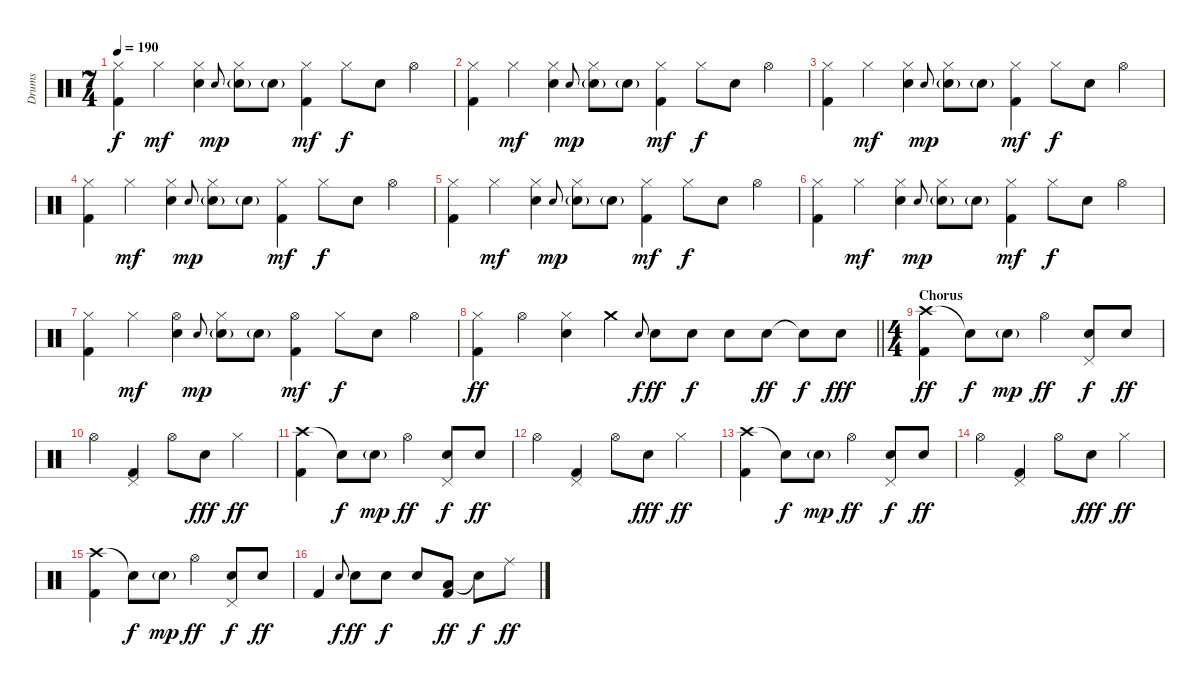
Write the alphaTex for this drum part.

\track ("Drums" "Drums") {instrument percussion}
\staff {score}
\articulation defaults
\ts (7 4)
\tempo 190
\clef neutral
\ks c
("Hi-Hat (closed)" "Kick (hit) 2").4{dy f} "Hi-Hat (closed)".4{dy mf} ("Hi-Hat (closed)" "Electric Snare (hit)").4 "Electric Snare (hit)".8{gr onbeat dy mp} ("Hi-Hat (closed)" "Electric Snare (hit)"{g}).8 "Electric Snare (hit)"{g}.8 ("Hi-Hat (closed)" "Kick (hit) 2").4{dy mf} "Hi-Hat (closed)".8{dy f} "Electric Snare (hit)".8 "Hi-Hat (open)".4 |
("Hi-Hat (closed)" "Kick (hit) 2").4 "Hi-Hat (closed)".4{dy mf} ("Hi-Hat (closed)" "Electric Snare (hit)").4 "Electric Snare (hit)".8{gr onbeat dy mp} ("Hi-Hat (closed)" "Electric Snare (hit)"{g}).8 "Electric Snare (hit)"{g}.8 ("Hi-Hat (closed)" "Kick (hit) 2").4{dy mf} "Hi-Hat (closed)".8{dy f} "Electric Snare (hit)".8 "Hi-Hat (open)".4 |
("Hi-Hat (closed)" "Kick (hit) 2").4 "Hi-Hat (closed)".4{dy mf} ("Hi-Hat (closed)" "Electric Snare (hit)").4 "Electric Snare (hit)".8{gr onbeat dy mp} ("Hi-Hat (closed)" "Electric Snare (hit)"{g}).8 "Electric Snare (hit)"{g}.8 ("Hi-Hat (closed)" "Kick (hit) 2").4{dy mf} "Hi-Hat (closed)".8{dy f} "Electric Snare (hit)".8 "Hi-Hat (open)".4 |
("Hi-Hat (closed)" "Kick (hit) 2").4 "Hi-Hat (closed)".4{dy mf} ("Hi-Hat (closed)" "Electric Snare (hit)").4 "Electric Snare (hit)".8{gr onbeat dy mp} ("Hi-Hat (closed)" "Electric Snare (hit)"{g}).8 "Electric Snare (hit)"{g}.8 ("Hi-Hat (closed)" "Kick (hit) 2").4{dy mf} "Hi-Hat (closed)".8{dy f} "Electric Snare (hit)".8 "Hi-Hat (open)".4 |
("Hi-Hat (closed)" "Kick (hit) 2").4 "Hi-Hat (closed)".4{dy mf} ("Hi-Hat (closed)" "Electric Snare (hit)").4 "Electric Snare (hit)".8{gr onbeat dy mp} ("Hi-Hat (closed)" "Electric Snare (hit)"{g}).8 "Electric Snare (hit)"{g}.8 ("Hi-Hat (closed)" "Kick (hit) 2").4{dy mf} "Hi-Hat (closed)".8{dy f} "Electric Snare (hit)".8 "Hi-Hat (open)".4 |
("Hi-Hat (closed)" "Kick (hit) 2").4 "Hi-Hat (closed)".4{dy mf} ("Hi-Hat (closed)" "Electric Snare (hit)").4 "Electric Snare (hit)".8{gr onbeat dy mp} ("Hi-Hat (closed)" "Electric Snare (hit)"{g}).8 "Electric Snare (hit)"{g}.8 ("Hi-Hat (closed)" "Kick (hit) 2").4{dy mf} "Hi-Hat (closed)".8{dy f} "Electric Snare (hit)".8 "Hi-Hat (open)".4 |
("Hi-Hat (closed)" "Kick (hit) 2").4 "Hi-Hat (closed)".4{dy mf} ("Hi-Hat (open)" "Electric Snare (hit)").4 "Electric Snare (hit)".8{gr onbeat dy mp} ("Hi-Hat (closed)" "Electric Snare (hit)"{g}).8 "Electric Snare (hit)"{g}.8 ("Hi-Hat (open)" "Kick (hit) 2").4{dy mf} "Hi-Hat (closed)".8{dy f} "Electric Snare (hit)".8 "Hi-Hat (open)".4 |
\barLineRight lightlight
("Hi-Hat (closed)" "Kick (hit) 2").4{dy ff} "Hi-Hat (open)".4 ("Hi-Hat (closed)" "Electric Snare (hit)").4 "Crash medium (hit)".4 "Electric Snare (hit)".8{gr onbeat dy f} "Electric Snare (hit)".8{dy ff} "Electric Snare (hit)".8{dy f} "Electric Snare (hit)".8 "Electric Snare (hit)".8{dy ff} "Snare (hit)"{t}.8{dy f} "Electric Snare (hit)".8{dy fff} |
\ts (4 4)
\section ("" "Chorus")
("Crash high (hit)" "Kick (hit) 2").4{dy ff} "Snare (hit)"{t}.8{dy f} "Electric Snare (hit)"{g}.8{dy mp} "Hi-Hat (open)".4{dy ff} ("Pedal Hi-Hat (hit)" "Electric Snare (hit)").8{dy f} "Electric Snare (hit)".8{dy ff} |
"Hi-Hat (open)".4 ("Pedal Hi-Hat (hit)" "Kick (hit) 2").4 "Hi-Hat (open)".8 "Electric Snare (hit)".8{dy fff} "Hi-Hat (closed)".4{dy ff} |
("Crash high (hit)" "Kick (hit) 2").4 "Snare (hit)"{t}.8{dy f} "Electric Snare (hit)"{g}.8{dy mp} "Hi-Hat (open)".4{dy ff} ("Pedal Hi-Hat (hit)" "Electric Snare (hit)").8{dy f} "Electric Snare (hit)".8{dy ff} |
"Hi-Hat (open)".4 ("Pedal Hi-Hat (hit)" "Kick (hit) 2").4 "Hi-Hat (open)".8 "Electric Snare (hit)".8{dy fff} "Hi-Hat (closed)".4{dy ff} |
("Crash high (hit)" "Kick (hit) 2").4 "Snare (hit)"{t}.8{dy f} "Electric Snare (hit)"{g}.8{dy mp} "Hi-Hat (open)".4{dy ff} ("Pedal Hi-Hat (hit)" "Electric Snare (hit)").8{dy f} "Electric Snare (hit)".8{dy ff} |
"Hi-Hat (open)".4 ("Pedal Hi-Hat (hit)" "Kick (hit) 2").4 "Hi-Hat (open)".8 "Electric Snare (hit)".8{dy fff} "Hi-Hat (closed)".4{dy ff} |
("Crash high (hit)" "Kick (hit) 2").4 "Snare (hit)"{t}.8{dy f} "Electric Snare (hit)"{g}.8{dy mp} "Hi-Hat (open)".4{dy ff} ("Pedal Hi-Hat (hit)" "Electric Snare (hit)").8{dy f} "Electric Snare (hit)".8{dy ff} |
"Kick (hit) 2".4 "Electric Snare (hit)".8{gr onbeat dy f} "Electric Snare (hit)".8{dy ff} "Electric Snare (hit)".8{dy f} "Electric Snare (hit)".8 ("Low Tom (hit)" "Kick (hit) 2").8{dy ff} "Snare (hit)"{t}.8{dy f} "Ride (middle)".8{dy ff}
